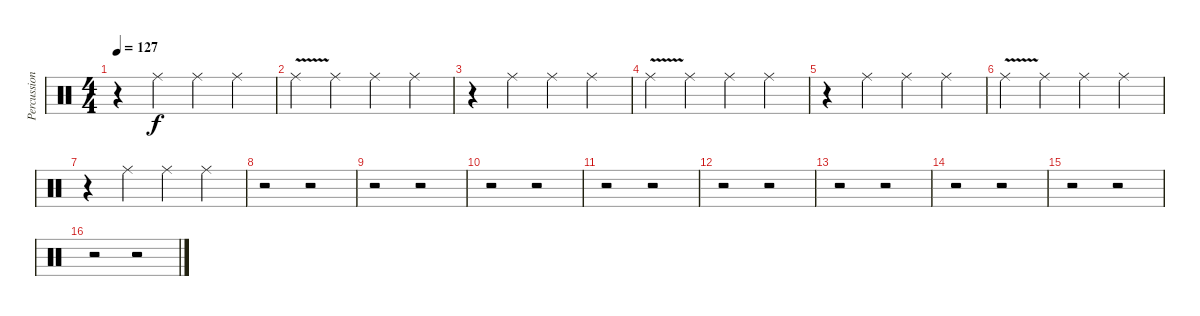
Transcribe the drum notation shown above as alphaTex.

\track ("Percussion" "Percussion") {instrument percussion}
\staff {score}
\articulation defaults
\ts (4 4)
\tempo 127
\clef neutral
\ks c
r.4{dy f} "Ride (middle)".4 "Ride (middle)".4 "Ride (middle)".4 |
"Ride (middle)"{v}.4 "Ride (middle)".4 "Ride (middle)".4 "Ride (middle)".4 |
r.4 "Ride (middle)".4 "Ride (middle)".4 "Ride (middle)".4 |
"Ride (middle)"{v}.4 "Ride (middle)".4 "Ride (middle)".4 "Ride (middle)".4 |
r.4 "Ride (middle)".4 "Ride (middle)".4 "Ride (middle)".4 |
"Ride (middle)"{v}.4 "Ride (middle)".4 "Ride (middle)".4 "Ride (middle)".4 |
r.4 "Ride (middle)".4 "Ride (middle)".4 "Ride (middle)".4 |
r.2 r.2 |
r.2 r.2 |
r.2 r.2 |
r.2 r.2 |
r.2 r.2 |
r.2 r.2 |
r.2 r.2 |
r.2 r.2 |
r.2 r.2
